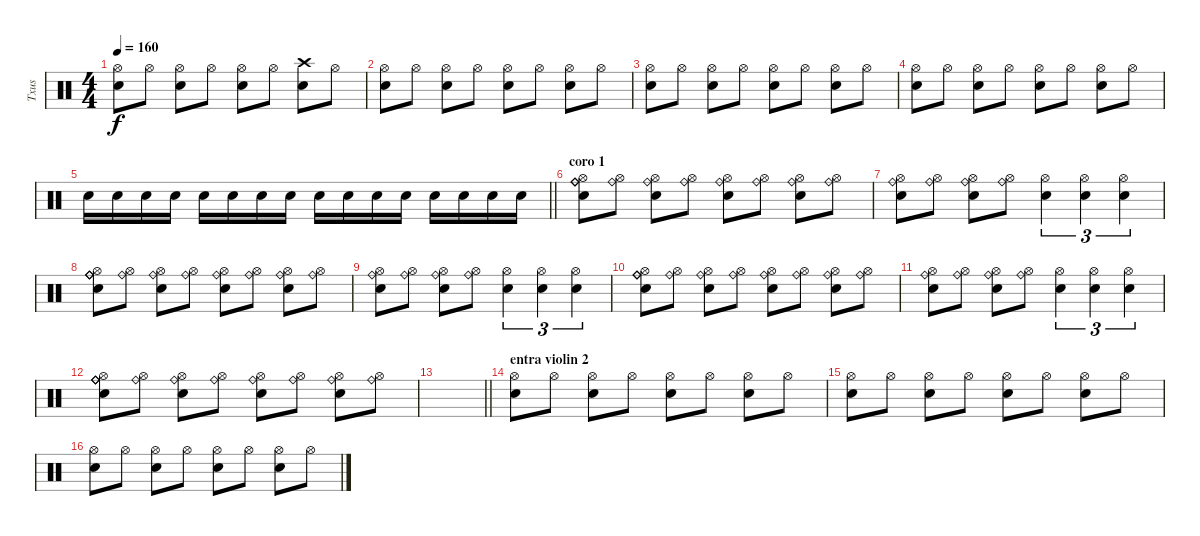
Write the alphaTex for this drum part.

\track ("Txus" "Txus") {instrument percussion}
\staff {score}
\articulation defaults
\ts (4 4)
\tempo 160
\clef neutral
\ks c
("Snare (hit) 2" "Hi-Hat (open)").8{dy f} "Hi-Hat (open)".8 ("Snare (hit) 2" "Hi-Hat (open)").8 "Hi-Hat (open)".8 ("Snare (hit) 2" "Hi-Hat (open)").8 "Hi-Hat (open)".8 ("Snare (hit) 2" "Crash high (hit)").8 "Hi-Hat (open)".8 |
("Snare (hit) 2" "Hi-Hat (open)").8 "Hi-Hat (open)".8 ("Snare (hit) 2" "Hi-Hat (open)").8 "Hi-Hat (open)".8 ("Snare (hit) 2" "Hi-Hat (open)").8 "Hi-Hat (open)".8 ("Snare (hit) 2" "Hi-Hat (open)").8 "Hi-Hat (open)".8 |
("Snare (hit) 2" "Hi-Hat (open)").8 "Hi-Hat (open)".8 ("Snare (hit) 2" "Hi-Hat (open)").8 "Hi-Hat (open)".8 ("Snare (hit) 2" "Hi-Hat (open)").8 "Hi-Hat (open)".8 ("Snare (hit) 2" "Hi-Hat (open)").8 "Hi-Hat (open)".8 |
("Snare (hit) 2" "Hi-Hat (open)").8 "Hi-Hat (open)".8 ("Snare (hit) 2" "Hi-Hat (open)").8 "Hi-Hat (open)".8 ("Snare (hit) 2" "Hi-Hat (open)").8 "Hi-Hat (open)".8 ("Snare (hit) 2" "Hi-Hat (open)").8 "Hi-Hat (open)".8 |
\barLineRight lightlight "Snare (hit) 2".16 "Snare (hit) 2".16 "Snare (hit) 2".16 "Snare (hit) 2".16 "Snare (hit) 2".16 "Snare (hit) 2".16 "Snare (hit) 2".16 "Snare (hit) 2".16 "Snare (hit) 2".16 "Snare (hit) 2".16 "Snare (hit) 2".16 "Snare (hit) 2".16 "Snare (hit) 2".16 "Snare (hit) 2".16 "Snare (hit) 2".16 "Snare (hit) 2".16
|
\section ("" "coro 1")
("Snare (hit) 2" "Hi-Hat (open)" "Ride (bell)" "Ride (bell)" "Ride (bell)").8 ("Hi-Hat (open)" "Ride (bell)").8 ("Snare (hit) 2" "Hi-Hat (open)" "Ride (bell)").8 ("Hi-Hat (open)" "Ride (bell)").8 ("Snare (hit) 2" "Hi-Hat (open)" "Ride (bell)").8 ("Hi-Hat (open)" "Ride (bell)").8 ("Snare (hit) 2" "Hi-Hat (open)" "Ride (bell)").8 ("Hi-Hat (open)" "Ride (bell)").8 |
("Snare (hit) 2" "Ride (bell)" "Hi-Hat (open)").8 ("Ride (bell)" "Hi-Hat (open)").8 ("Snare (hit) 2" "Ride (bell)" "Hi-Hat (open)").8 ("Ride (bell)" "Hi-Hat (open)").8 ("Snare (hit) 2" "Hi-Hat (open)").4{tu (3 2)} ("Snare (hit) 2" "Hi-Hat (open)").4{tu (3 2)} ("Snare (hit) 2" "Hi-Hat (open)").4{tu (3 2)} |
("Snare (hit) 2" "Hi-Hat (open)" "Ride (bell)" "Ride (bell)" "Ride (bell)").8 ("Hi-Hat (open)" "Ride (bell)").8 ("Snare (hit) 2" "Hi-Hat (open)" "Ride (bell)").8 ("Hi-Hat (open)" "Ride (bell)").8 ("Snare (hit) 2" "Hi-Hat (open)" "Ride (bell)").8 ("Hi-Hat (open)" "Ride (bell)").8 ("Snare (hit) 2" "Hi-Hat (open)" "Ride (bell)").8 ("Hi-Hat (open)" "Ride (bell)").8 |
("Snare (hit) 2" "Ride (bell)" "Hi-Hat (open)").8 ("Ride (bell)" "Hi-Hat (open)").8 ("Snare (hit) 2" "Ride (bell)" "Hi-Hat (open)").8 ("Ride (bell)" "Hi-Hat (open)").8 ("Snare (hit) 2" "Hi-Hat (open)").4{tu (3 2)} ("Snare (hit) 2" "Hi-Hat (open)").4{tu (3 2)} ("Snare (hit) 2" "Hi-Hat (open)").4{tu (3 2)} |
("Snare (hit) 2" "Hi-Hat (open)" "Ride (bell)" "Ride (bell)" "Ride (bell)").8 ("Hi-Hat (open)" "Ride (bell)").8 ("Snare (hit) 2" "Hi-Hat (open)" "Ride (bell)").8 ("Hi-Hat (open)" "Ride (bell)").8 ("Snare (hit) 2" "Hi-Hat (open)" "Ride (bell)").8 ("Hi-Hat (open)" "Ride (bell)").8 ("Snare (hit) 2" "Hi-Hat (open)" "Ride (bell)").8 ("Hi-Hat (open)" "Ride (bell)").8 |
("Snare (hit) 2" "Ride (bell)" "Hi-Hat (open)").8 ("Ride (bell)" "Hi-Hat (open)").8 ("Snare (hit) 2" "Ride (bell)" "Hi-Hat (open)").8 ("Ride (bell)" "Hi-Hat (open)").8 ("Snare (hit) 2" "Hi-Hat (open)").4{tu (3 2)} ("Snare (hit) 2" "Hi-Hat (open)").4{tu (3 2)} ("Snare (hit) 2" "Hi-Hat (open)").4{tu (3 2)} |
("Snare (hit) 2" "Hi-Hat (open)" "Ride (bell)" "Ride (bell)" "Ride (bell)").8 ("Hi-Hat (open)" "Ride (bell)").8 ("Snare (hit) 2" "Hi-Hat (open)" "Ride (bell)").8 ("Hi-Hat (open)" "Ride (bell)").8 ("Snare (hit) 2" "Hi-Hat (open)" "Ride (bell)").8 ("Hi-Hat (open)" "Ride (bell)").8 ("Snare (hit) 2" "Hi-Hat (open)" "Ride (bell)").8 ("Hi-Hat (open)" "Ride (bell)").8 |
\barLineRight lightlight
|
\section ("" "entra violin 2")
("Snare (hit) 2" "Hi-Hat (open)").8 "Hi-Hat (open)".8 ("Snare (hit) 2" "Hi-Hat (open)").8 "Hi-Hat (open)".8 ("Snare (hit) 2" "Hi-Hat (open)").8 "Hi-Hat (open)".8 ("Snare (hit) 2" "Hi-Hat (open)").8 "Hi-Hat (open)".8 |
("Snare (hit) 2" "Hi-Hat (open)").8 "Hi-Hat (open)".8 ("Snare (hit) 2" "Hi-Hat (open)").8 "Hi-Hat (open)".8 ("Snare (hit) 2" "Hi-Hat (open)").8 "Hi-Hat (open)".8 ("Snare (hit) 2" "Hi-Hat (open)").8 "Hi-Hat (open)".8 |
("Snare (hit) 2" "Hi-Hat (open)").8 "Hi-Hat (open)".8 ("Snare (hit) 2" "Hi-Hat (open)").8 "Hi-Hat (open)".8 ("Snare (hit) 2" "Hi-Hat (open)").8 "Hi-Hat (open)".8 ("Snare (hit) 2" "Hi-Hat (open)").8 "Hi-Hat (open)".8
